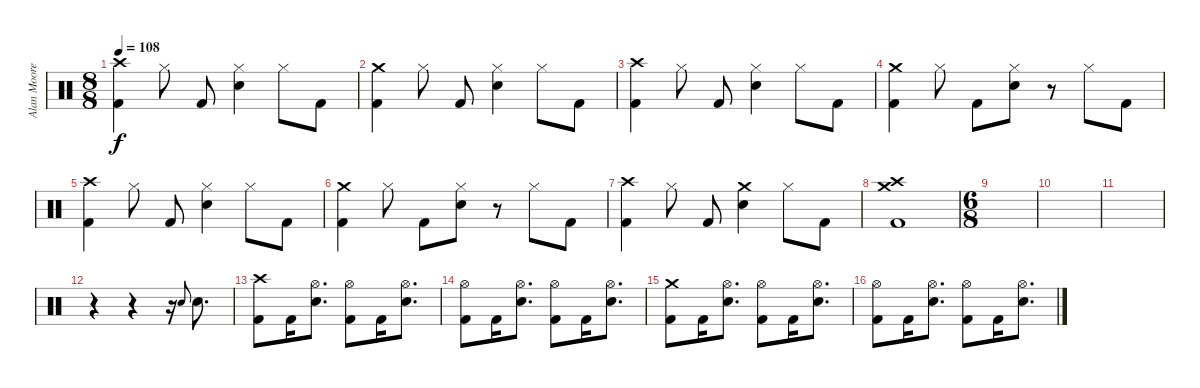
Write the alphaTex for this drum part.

\track ("Alan Moore" "Alan Moore") {instrument percussion}
\staff {score}
\articulation defaults
\ts (8 8)
\tempo 108
\clef neutral
\ks c
("Crash high (hit)" "Kick (hit) 2").4{dy f} "Hi-Hat (closed)".8 "Kick (hit) 2".8 ("Hi-Hat (closed)" "Snare (hit) 2").4 "Hi-Hat (closed)".8 "Kick (hit) 2".8 |
("Crash medium (hit)" "Kick (hit) 2").4 "Hi-Hat (closed)".8 "Kick (hit) 2".8 ("Hi-Hat (closed)" "Snare (hit) 2").4 "Hi-Hat (closed)".8 "Kick (hit) 2".8 |
("Crash high (hit)" "Kick (hit) 2").4 "Hi-Hat (closed)".8 "Kick (hit) 2".8 ("Hi-Hat (closed)" "Snare (hit) 2").4 "Hi-Hat (closed)".8 "Kick (hit) 2".8 |
("Crash medium (hit)" "Kick (hit) 2").4 "Hi-Hat (closed)".8 "Kick (hit) 2".8 ("Hi-Hat (closed)" "Snare (hit) 2").8 r.8 "Hi-Hat (closed)".8 "Kick (hit) 2".8 |
("Crash high (hit)" "Kick (hit) 2").4 "Hi-Hat (closed)".8 "Kick (hit) 2".8 ("Hi-Hat (closed)" "Snare (hit) 2").4 "Hi-Hat (closed)".8 "Kick (hit) 2".8 |
("Crash medium (hit)" "Kick (hit) 2").4 "Hi-Hat (closed)".8 "Kick (hit) 2".8 ("Hi-Hat (closed)" "Snare (hit) 2").8 r.8 "Hi-Hat (closed)".8 "Kick (hit) 2".8 |
("Crash high (hit)" "Kick (hit) 2").4 "Hi-Hat (closed)".8 "Kick (hit) 2".8 ("Crash medium (hit)" "Snare (hit) 2").4 "Hi-Hat (closed)".8 "Kick (hit) 2".8 |
("Crash high (hit)" "Crash medium (hit)" "Kick (hit) 2").1 |
\ts (6 8)
|
|
|
r.4 r.4 r.16 "Snare (hit) 2".8{gr onbeat} "Snare (hit) 2".8{d} |
("Crash high (hit)" "Kick (hit) 2").8 "Kick (hit) 2".16 ("Hi-Hat (open)" "Snare (hit) 2").8{d} ("Hi-Hat (open)" "Kick (hit) 2").8 "Kick (hit) 2".16 ("Hi-Hat (open)" "Snare (hit) 2").8{d} |
("Hi-Hat (open)" "Kick (hit) 2").8 "Kick (hit) 2".16 ("Hi-Hat (open)" "Snare (hit) 2").8{d} ("Hi-Hat (open)" "Kick (hit) 2").8 "Kick (hit) 2".16 ("Hi-Hat (open)" "Snare (hit) 2").8{d} |
("Crash medium (hit)" "Kick (hit) 2").8 "Kick (hit) 2".16 ("Hi-Hat (open)" "Snare (hit) 2").8{d} ("Hi-Hat (open)" "Kick (hit) 2").8 "Kick (hit) 2".16 ("Hi-Hat (open)" "Snare (hit) 2").8{d} |
("Hi-Hat (open)" "Kick (hit) 2").8 "Kick (hit) 2".16 ("Hi-Hat (open)" "Snare (hit) 2").8{d} ("Hi-Hat (open)" "Kick (hit) 2").8 "Kick (hit) 2".16 ("Hi-Hat (open)" "Snare (hit) 2").8{d}
